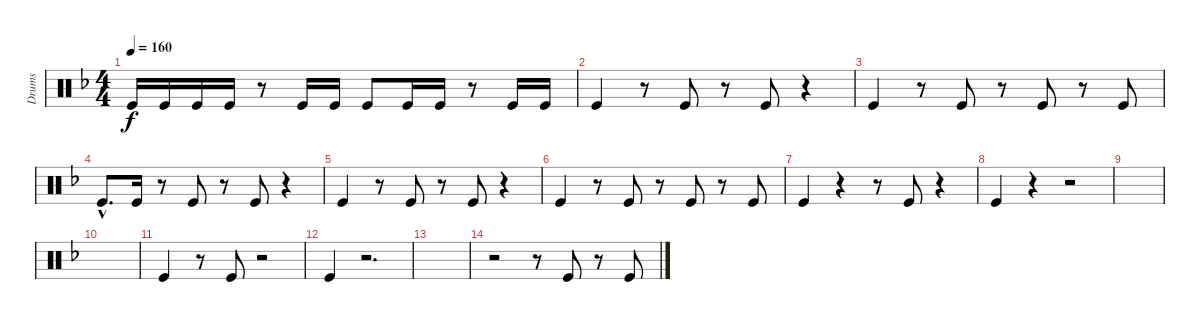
\track ("Drums" "Drums") {instrument percussion}
\staff {score}
\articulation defaults
\ts (4 4)
\tempo 160
\clef neutral
\ks f "Kick (hit)".16{dy f} "Kick (hit)".16 "Kick (hit)".16 "Kick (hit)".16
r.8 "Kick (hit)".16 "Kick (hit)".16 "Kick (hit)".8 "Kick (hit)".16 "Kick (hit)".16 r.8 "Kick (hit)".16 "Kick (hit)".16 |
"Kick (hit)".4 r.8 "Kick (hit)".8 r.8 "Kick (hit)".8 r.4 |
"Kick (hit)".4 r.8 "Kick (hit)".8 r.8 "Kick (hit)".8 r.8 "Kick (hit)".8 |
"Kick (hit)"{hac}.8{d} "Kick (hit)".16 r.8 "Kick (hit)".8 r.8 "Kick (hit)".8 r.4 |
"Kick (hit)".4 r.8 "Kick (hit)".8 r.8 "Kick (hit)".8 r.4 |
"Kick (hit)".4 r.8 "Kick (hit)".8 r.8 "Kick (hit)".8 r.8 "Kick (hit)".8 |
"Kick (hit)".4 r.4 r.8 "Kick (hit)".8 r.4 |
"Kick (hit)".4 r.4 r.2 |
|
|
"Kick (hit)".4 r.8 "Kick (hit)".8 r.2 |
"Kick (hit)".4 r.2{d} |
|
r.2 r.8 "Kick (hit)".8 r.8 "Kick (hit)".8
